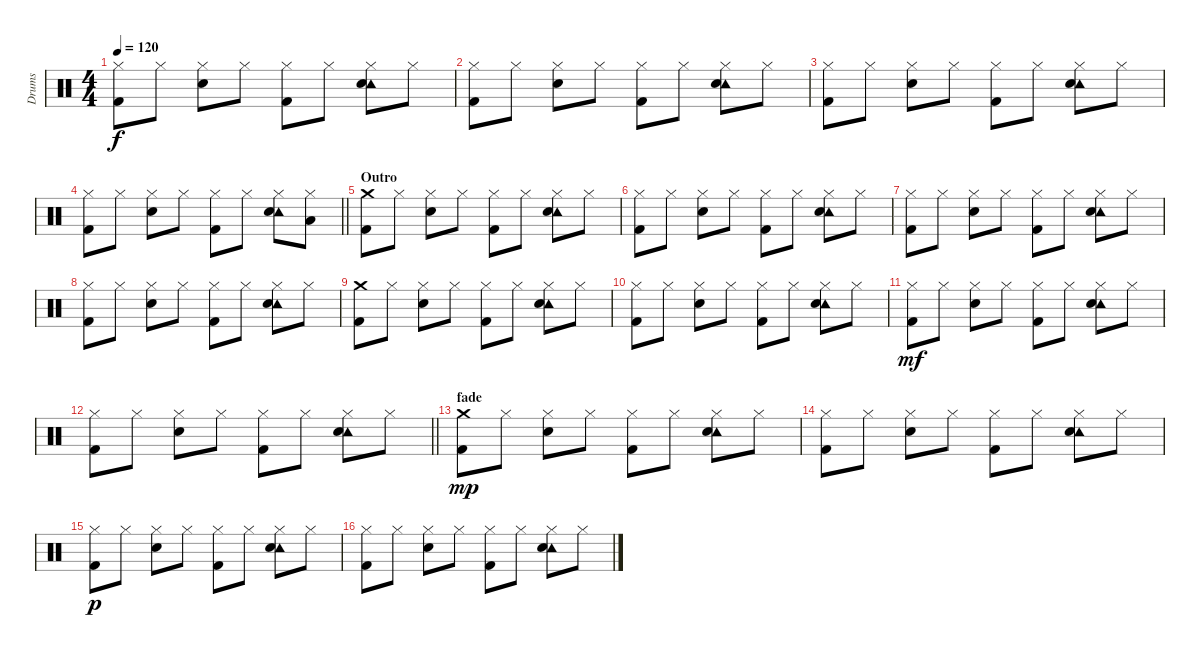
\track ("Drums" "Drums") {instrument percussion}
\staff {score}
\articulation defaults
\ts (4 4)
\tempo 120
\clef neutral
\ks c
("Hi-Hat (closed)" "Kick (hit) 2").8{dy f} "Hi-Hat (closed)".8 ("Hi-Hat (closed)" "Electric Snare (hit)").8 "Hi-Hat (closed)".8 ("Hi-Hat (closed)" "Kick (hit) 2").8 "Hi-Hat (closed)".8 ("Hi-Hat (closed)" "Tambourine (hit)" "Electric Snare (hit)").8 "Hi-Hat (closed)".8 |
("Hi-Hat (closed)" "Kick (hit) 2").8 "Hi-Hat (closed)".8 ("Hi-Hat (closed)" "Electric Snare (hit)").8 "Hi-Hat (closed)".8 ("Hi-Hat (closed)" "Kick (hit) 2").8 "Hi-Hat (closed)".8 ("Hi-Hat (closed)" "Tambourine (hit)" "Electric Snare (hit)").8 "Hi-Hat (closed)".8 |
("Hi-Hat (closed)" "Kick (hit) 2").8 "Hi-Hat (closed)".8 ("Hi-Hat (closed)" "Electric Snare (hit)").8 "Hi-Hat (closed)".8 ("Hi-Hat (closed)" "Kick (hit) 2").8 "Hi-Hat (closed)".8 ("Hi-Hat (closed)" "Tambourine (hit)" "Electric Snare (hit)").8 "Hi-Hat (closed)".8 |
\barLineRight lightlight
("Hi-Hat (closed)" "Kick (hit) 2").8 "Hi-Hat (closed)".8 ("Hi-Hat (closed)" "Electric Snare (hit)").8 "Hi-Hat (closed)".8 ("Hi-Hat (closed)" "Kick (hit) 2").8 "Hi-Hat (closed)".8 ("Hi-Hat (closed)" "Tambourine (hit)" "Electric Snare (hit)").8 ("Hi-Hat (closed)" "Low Tom (hit)").8 |
\section ("" "Outro")
("Crash medium (hit)" "Kick (hit) 2").8 "Hi-Hat (closed)".8 ("Hi-Hat (closed)" "Electric Snare (hit)").8 "Hi-Hat (closed)".8 ("Hi-Hat (closed)" "Kick (hit) 2").8 "Hi-Hat (closed)".8 ("Hi-Hat (closed)" "Tambourine (hit)" "Electric Snare (hit)").8 "Hi-Hat (closed)".8 |
("Hi-Hat (closed)" "Kick (hit) 2").8 "Hi-Hat (closed)".8 ("Hi-Hat (closed)" "Electric Snare (hit)").8 "Hi-Hat (closed)".8 ("Hi-Hat (closed)" "Kick (hit) 2").8 "Hi-Hat (closed)".8 ("Hi-Hat (closed)" "Tambourine (hit)" "Electric Snare (hit)").8 "Hi-Hat (closed)".8 |
("Hi-Hat (closed)" "Kick (hit) 2").8 "Hi-Hat (closed)".8 ("Hi-Hat (closed)" "Electric Snare (hit)").8 "Hi-Hat (closed)".8 ("Hi-Hat (closed)" "Kick (hit) 2").8 "Hi-Hat (closed)".8 ("Hi-Hat (closed)" "Tambourine (hit)" "Electric Snare (hit)").8 "Hi-Hat (closed)".8 |
("Hi-Hat (closed)" "Kick (hit) 2").8 "Hi-Hat (closed)".8 ("Hi-Hat (closed)" "Electric Snare (hit)").8 "Hi-Hat (closed)".8 ("Hi-Hat (closed)" "Kick (hit) 2").8 "Hi-Hat (closed)".8 ("Hi-Hat (closed)" "Tambourine (hit)" "Electric Snare (hit)").8 "Hi-Hat (closed)".8 |
("Crash medium (hit)" "Kick (hit) 2").8 "Hi-Hat (closed)".8 ("Hi-Hat (closed)" "Electric Snare (hit)").8 "Hi-Hat (closed)".8 ("Hi-Hat (closed)" "Kick (hit) 2").8 "Hi-Hat (closed)".8 ("Hi-Hat (closed)" "Tambourine (hit)" "Electric Snare (hit)").8 "Hi-Hat (closed)".8 |
("Hi-Hat (closed)" "Kick (hit) 2").8 "Hi-Hat (closed)".8 ("Hi-Hat (closed)" "Electric Snare (hit)").8 "Hi-Hat (closed)".8 ("Hi-Hat (closed)" "Kick (hit) 2").8 "Hi-Hat (closed)".8 ("Hi-Hat (closed)" "Tambourine (hit)" "Electric Snare (hit)").8 "Hi-Hat (closed)".8 |
("Hi-Hat (closed)" "Kick (hit) 2").8{dy mf} "Hi-Hat (closed)".8 ("Hi-Hat (closed)" "Electric Snare (hit)").8 "Hi-Hat (closed)".8 ("Hi-Hat (closed)" "Kick (hit) 2").8 "Hi-Hat (closed)".8 ("Hi-Hat (closed)" "Tambourine (hit)" "Electric Snare (hit)").8 "Hi-Hat (closed)".8 |
\barLineRight lightlight
("Hi-Hat (closed)" "Kick (hit) 2").8 "Hi-Hat (closed)".8 ("Hi-Hat (closed)" "Electric Snare (hit)").8 "Hi-Hat (closed)".8 ("Hi-Hat (closed)" "Kick (hit) 2").8 "Hi-Hat (closed)".8 ("Hi-Hat (closed)" "Tambourine (hit)" "Electric Snare (hit)").8 "Hi-Hat (closed)".8 |
\section ("" "fade")
("Crash medium (hit)" "Kick (hit) 2").8{dy mp} "Hi-Hat (closed)".8 ("Hi-Hat (closed)" "Electric Snare (hit)").8 "Hi-Hat (closed)".8 ("Hi-Hat (closed)" "Kick (hit) 2").8 "Hi-Hat (closed)".8 ("Hi-Hat (closed)" "Tambourine (hit)" "Electric Snare (hit)").8 "Hi-Hat (closed)".8 |
("Hi-Hat (closed)" "Kick (hit) 2").8 "Hi-Hat (closed)".8 ("Hi-Hat (closed)" "Electric Snare (hit)").8 "Hi-Hat (closed)".8 ("Hi-Hat (closed)" "Kick (hit) 2").8 "Hi-Hat (closed)".8 ("Hi-Hat (closed)" "Tambourine (hit)" "Electric Snare (hit)").8 "Hi-Hat (closed)".8 |
("Hi-Hat (closed)" "Kick (hit) 2").8{dy p} "Hi-Hat (closed)".8 ("Hi-Hat (closed)" "Electric Snare (hit)").8 "Hi-Hat (closed)".8 ("Hi-Hat (closed)" "Kick (hit) 2").8 "Hi-Hat (closed)".8 ("Hi-Hat (closed)" "Tambourine (hit)" "Electric Snare (hit)").8 "Hi-Hat (closed)".8 |
("Hi-Hat (closed)" "Kick (hit) 2").8 "Hi-Hat (closed)".8 ("Hi-Hat (closed)" "Electric Snare (hit)").8 "Hi-Hat (closed)".8 ("Hi-Hat (closed)" "Kick (hit) 2").8 "Hi-Hat (closed)".8 ("Hi-Hat (closed)" "Tambourine (hit)" "Electric Snare (hit)").8 "Hi-Hat (closed)".8
